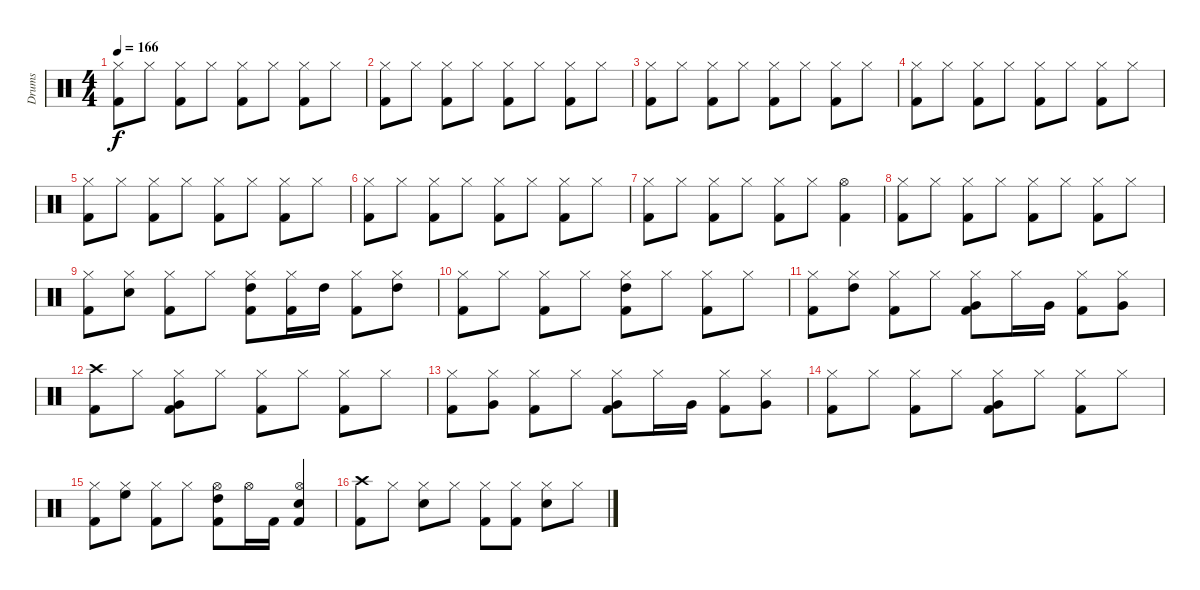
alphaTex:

\track ("Drums" "Drums") {instrument percussion}
\staff {score}
\articulation defaults
\ts (4 4)
\tempo 166
\clef neutral
\ks c
("Hi-Hat (closed)" "Kick (hit) 2").8{dy f} "Hi-Hat (closed)".8 ("Hi-Hat (closed)" "Kick (hit) 2").8 "Hi-Hat (closed)".8 ("Hi-Hat (closed)" "Kick (hit) 2").8 "Hi-Hat (closed)".8 ("Hi-Hat (closed)" "Kick (hit) 2").8 "Hi-Hat (closed)".8 |
("Hi-Hat (closed)" "Kick (hit) 2").8 "Hi-Hat (closed)".8 ("Hi-Hat (closed)" "Kick (hit) 2").8 "Hi-Hat (closed)".8 ("Hi-Hat (closed)" "Kick (hit) 2").8 "Hi-Hat (closed)".8 ("Hi-Hat (closed)" "Kick (hit) 2").8 "Hi-Hat (closed)".8 |
("Hi-Hat (closed)" "Kick (hit) 2").8 "Hi-Hat (closed)".8 ("Hi-Hat (closed)" "Kick (hit) 2").8 "Hi-Hat (closed)".8 ("Hi-Hat (closed)" "Kick (hit) 2").8 "Hi-Hat (closed)".8 ("Hi-Hat (closed)" "Kick (hit) 2").8 "Hi-Hat (closed)".8 |
("Hi-Hat (closed)" "Kick (hit) 2").8 "Hi-Hat (closed)".8 ("Hi-Hat (closed)" "Kick (hit) 2").8 "Hi-Hat (closed)".8 ("Hi-Hat (closed)" "Kick (hit) 2").8 "Hi-Hat (closed)".8 ("Hi-Hat (closed)" "Kick (hit) 2").8 "Hi-Hat (closed)".8 |
("Hi-Hat (closed)" "Kick (hit) 2").8 "Hi-Hat (closed)".8 ("Hi-Hat (closed)" "Kick (hit) 2").8 "Hi-Hat (closed)".8 ("Hi-Hat (closed)" "Kick (hit) 2").8 "Hi-Hat (closed)".8 ("Hi-Hat (closed)" "Kick (hit) 2").8 "Hi-Hat (closed)".8 |
("Hi-Hat (closed)" "Kick (hit) 2").8 "Hi-Hat (closed)".8 ("Hi-Hat (closed)" "Kick (hit) 2").8 "Hi-Hat (closed)".8 ("Hi-Hat (closed)" "Kick (hit) 2").8 "Hi-Hat (closed)".8 ("Hi-Hat (closed)" "Kick (hit) 2").8 "Hi-Hat (closed)".8 |
("Hi-Hat (closed)" "Kick (hit) 2").8 "Hi-Hat (closed)".8 ("Hi-Hat (closed)" "Kick (hit) 2").8 "Hi-Hat (closed)".8 ("Hi-Hat (closed)" "Kick (hit) 2").8 "Hi-Hat (closed)".8 ("Hi-Hat (open)" "Kick (hit) 2").4 |
("Hi-Hat (closed)" "Kick (hit) 2").8 "Hi-Hat (closed)".8 ("Hi-Hat (closed)" "Kick (hit) 2").8 "Hi-Hat (closed)".8 ("Hi-Hat (closed)" "Kick (hit) 2").8 "Hi-Hat (closed)".8 ("Hi-Hat (closed)" "Kick (hit) 2").8 "Hi-Hat (closed)".8 |
("Hi-Hat (closed)" "Kick (hit) 2").8 ("Hi-Hat (closed)" "Snare (hit) 2").8 ("Hi-Hat (closed)" "Kick (hit) 2").8 "Hi-Hat (closed)".8 ("High Tom (hit)" "Hi-Hat (closed)" "Kick (hit) 2").8 ("Hi-Hat (closed)" "Kick (hit) 2").16 "High Tom (hit)".16 ("Hi-Hat (closed)" "Kick (hit) 2").8 ("High Tom (hit)" "Hi-Hat (closed)").8 |
("Hi-Hat (closed)" "Kick (hit) 2").8 "Hi-Hat (closed)".8 ("Hi-Hat (closed)" "Kick (hit) 2").8 "Hi-Hat (closed)".8 ("High Tom (hit)" "Hi-Hat (closed)" "Kick (hit) 2").8 "Hi-Hat (closed)".8 ("Hi-Hat (closed)" "Kick (hit) 2").8 "Hi-Hat (closed)".8 |
("Hi-Hat (closed)" "Kick (hit) 2").8 ("High Tom (hit)" "Hi-Hat (closed)").8 ("Hi-Hat (closed)" "Kick (hit) 2").8 "Hi-Hat (closed)".8 ("Very Low Tom (hit)" "Hi-Hat (closed)" "Kick (hit) 2").8 "Hi-Hat (closed)".16 "Very Low Tom (hit)".16 ("Hi-Hat (closed)" "Kick (hit) 2").8 ("Very Low Tom (hit)" "Hi-Hat (closed)").8 |
("Crash high (hit)" "Kick (hit) 2").8 "Hi-Hat (closed)".8 ("Very Low Tom (hit)" "Hi-Hat (closed)" "Kick (hit) 2").8 "Hi-Hat (closed)".8 ("Hi-Hat (closed)" "Kick (hit) 2").8 "Hi-Hat (closed)".8 ("Hi-Hat (closed)" "Kick (hit) 2").8 "Hi-Hat (closed)".8 |
("Hi-Hat (closed)" "Kick (hit) 2").8 ("Very Low Tom (hit)" "Hi-Hat (closed)").8 ("Hi-Hat (closed)" "Kick (hit) 2").8 "Hi-Hat (closed)".8 ("Very Low Tom (hit)" "Hi-Hat (closed)" "Kick (hit) 2").8 "Hi-Hat (closed)".16 "Very Low Tom (hit)".16 ("Hi-Hat (closed)" "Kick (hit) 2").8 ("Very Low Tom (hit)" "Hi-Hat (closed)").8 |
("Hi-Hat (closed)" "Kick (hit) 2").8 "Hi-Hat (closed)".8 ("Hi-Hat (closed)" "Kick (hit) 2").8 "Hi-Hat (closed)".8 ("Very Low Tom (hit)" "Hi-Hat (closed)" "Kick (hit) 2").8 "Hi-Hat (closed)".8 ("Hi-Hat (closed)" "Kick (hit) 2").8 "Hi-Hat (closed)".8 |
("Hi-Hat (closed)" "Kick (hit) 2").8 ("High Floor Tom (hit)" "Hi-Hat (closed)").8 ("Hi-Hat (closed)" "Kick (hit) 2").8 "Hi-Hat (closed)".8 ("High Tom (hit)" "Hi-Hat (open)" "Kick (hit) 2").8 "Hi-Hat (open)".16 "Kick (hit) 2".16 ("Hi-Hat (open)" "Snare (hit) 2" "Kick (hit) 2").4 |
("Crash high (hit)" "Kick (hit) 2").8 "Hi-Hat (closed)".8 ("Hi-Hat (closed)" "Snare (hit) 2").8 "Hi-Hat (closed)".8 ("Hi-Hat (closed)" "Kick (hit) 2").8 ("Hi-Hat (closed)" "Kick (hit) 2").8 ("Hi-Hat (closed)" "Snare (hit) 2").8 "Hi-Hat (closed)".8
